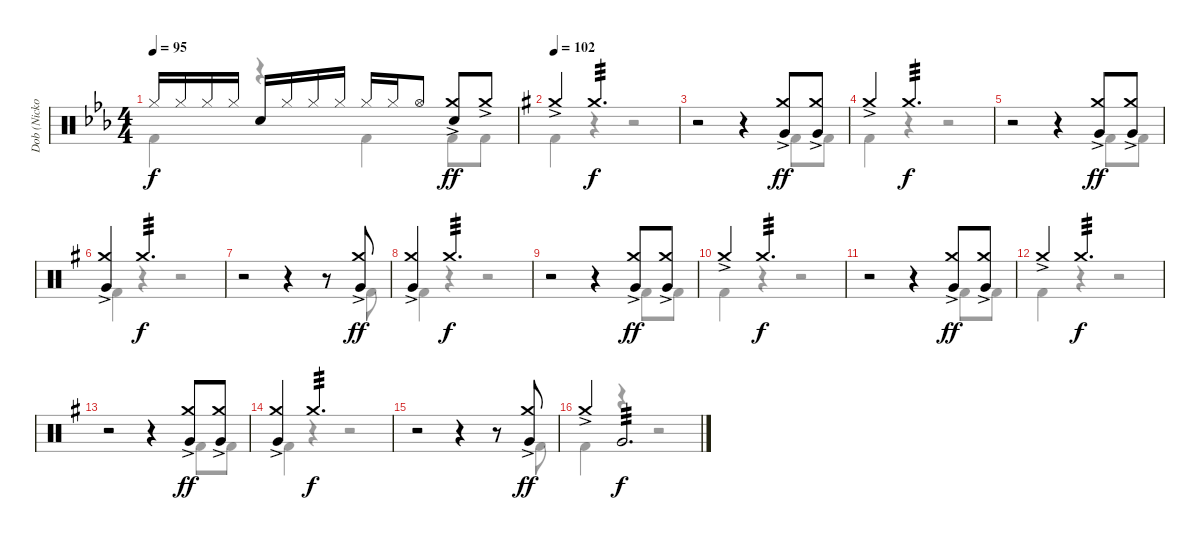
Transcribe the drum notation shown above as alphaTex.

\track ("Dob (Nicko McBrain)" "Dob (Nicko") {instrument percussion}
\staff {score}
\articulation defaults
\voice
\ts (4 4)
\tempo 95
\clef neutral
\ks eb "Hi-Hat (closed)".16{dy f} "Hi-Hat (closed)".16 "Hi-Hat (closed)".16 "Hi-Hat (closed)".16 "Electric Snare (hit)".16 "Hi-Hat (closed)".16 "Hi-Hat (closed)".16 "Hi-Hat (closed)".16 "Hi-Hat (closed)".16 "Hi-Hat (closed)".16 "Hi-Hat (open)".8
("Crash medium (hit)"{ac} "Electric Snare (hit)").8{dy ff} "Crash medium (hit)"{ac}.8 |
\tempo 102
\ks g "Crash medium (hit)"{ac}.4 "Crash medium (hit)".2{d tp 3 dy f}
|
r.2 r.4 ("Crash medium (hit)"{ac} "Very Low Tom (hit)").8{dy ff} ("Crash medium (hit)"{ac} "Very Low Tom (hit)").8 |
"Crash medium (hit)"{ac}.4 "Crash medium (hit)".2{d tp 3 dy f} |
r.2 r.4 ("Crash medium (hit)"{ac} "Very Low Tom (hit)").8{dy ff} ("Crash medium (hit)"{ac} "Very Low Tom (hit)").8 |
("Crash medium (hit)"{ac} "Very Low Tom (hit)").4 "Crash medium (hit)".2{d tp 3 dy f} |
r.2 r.4 r.8 ("Crash medium (hit)"{ac} "Very Low Tom (hit)").8{dy ff} |
("Crash medium (hit)"{ac} "Very Low Tom (hit)").4 "Crash medium (hit)".2{d tp 3 dy f} |
r.2 r.4 ("Crash medium (hit)"{ac} "Very Low Tom (hit)").8{dy ff} ("Crash medium (hit)"{ac} "Very Low Tom (hit)").8 |
"Crash medium (hit)"{ac}.4 "Crash medium (hit)".2{d tp 3 dy f} |
r.2 r.4 ("Crash medium (hit)"{ac} "Very Low Tom (hit)").8{dy ff} ("Crash medium (hit)"{ac} "Very Low Tom (hit)").8 |
"Crash medium (hit)"{ac}.4 "Crash medium (hit)".2{d tp 3 dy f} |
r.2 r.4 ("Crash medium (hit)"{ac} "Very Low Tom (hit)").8{dy ff} ("Crash medium (hit)"{ac} "Very Low Tom (hit)").8 |
("Crash medium (hit)"{ac} "Very Low Tom (hit)").4 "Crash medium (hit)".2{d tp 3 dy f} |
r.2 r.4 r.8 ("Crash medium (hit)"{ac} "Very Low Tom (hit)").8{dy ff} |
"Crash medium (hit)"{ac}.4 "Very Low Tom (hit)".2{d tp 3 dy f}
\voice
\clef neutral
\ottava regular
\simile none
\ks eb "Kick (hit) 2".4{dy f}
r.4 "Kick (hit) 2".4 "Kick (hit) 2".8 "Kick (hit) 2".8 |
\ks g "Kick (hit) 2".4
r.4 r.2 |
r.2 r.4 "Kick (hit) 2".8 "Kick (hit) 2".8 |
"Kick (hit) 2".4 r.4 r.2 |
r.2 r.4 "Kick (hit) 2".8 "Kick (hit) 2".8 |
"Kick (hit) 2".4 r.4 r.2 |
r.2 r.4 r.8 "Kick (hit) 2".8 |
"Kick (hit) 2".4 r.4 r.2 |
r.2 r.4 "Kick (hit) 2".8 "Kick (hit) 2".8 |
"Kick (hit) 2".4 r.4 r.2 |
r.2 r.4 "Kick (hit) 2".8 "Kick (hit) 2".8 |
"Kick (hit) 2".4 r.4 r.2 |
r.2 r.4 "Kick (hit) 2".8 "Kick (hit) 2".8 |
"Kick (hit) 2".4 r.4 r.2 |
r.2 r.4 r.8 "Kick (hit) 2".8 |
"Kick (hit) 2".4 r.4 r.2
